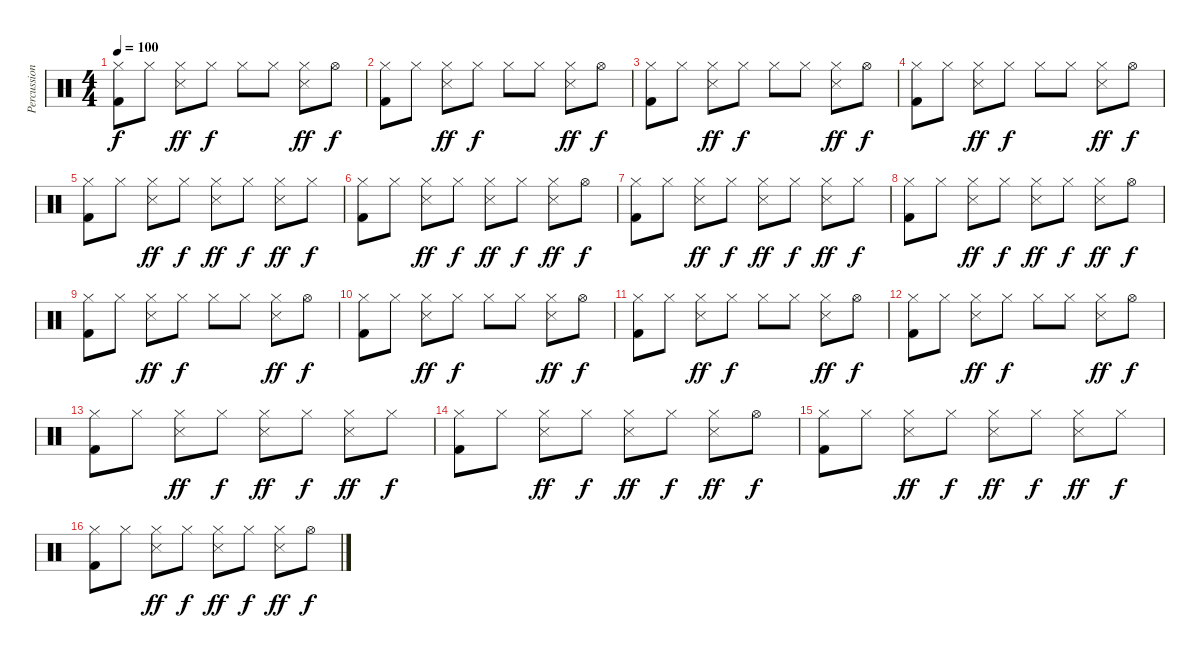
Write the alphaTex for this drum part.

\track ("Percussion" "Percussion") {instrument percussion}
\staff {score}
\articulation defaults
\ts (4 4)
\tempo 100
\clef neutral
\ks c
("Hi-Hat (closed)" "Kick (hit) 2").8{dy f} "Hi-Hat (closed)".8 ("Hi-Hat (closed)" "Snare (side stick) 3").8{dy ff} "Hi-Hat (closed)".8{dy f} "Hi-Hat (closed)".8 "Hi-Hat (closed)".8 ("Hi-Hat (closed)" "Snare (side stick) 3").8{dy ff} "Hi-Hat (open)".8{dy f} |
("Hi-Hat (closed)" "Kick (hit) 2").8 "Hi-Hat (closed)".8 ("Hi-Hat (closed)" "Snare (side stick) 3").8{dy ff} "Hi-Hat (closed)".8{dy f} "Hi-Hat (closed)".8 "Hi-Hat (closed)".8 ("Hi-Hat (closed)" "Snare (side stick) 3").8{dy ff} "Hi-Hat (open)".8{dy f} |
("Hi-Hat (closed)" "Kick (hit) 2").8 "Hi-Hat (closed)".8 ("Hi-Hat (closed)" "Snare (side stick) 3").8{dy ff} "Hi-Hat (closed)".8{dy f} "Hi-Hat (closed)".8 "Hi-Hat (closed)".8 ("Hi-Hat (closed)" "Snare (side stick) 3").8{dy ff} "Hi-Hat (open)".8{dy f} |
("Hi-Hat (closed)" "Kick (hit) 2").8 "Hi-Hat (closed)".8 ("Hi-Hat (closed)" "Snare (side stick) 3").8{dy ff} "Hi-Hat (closed)".8{dy f} "Hi-Hat (closed)".8 "Hi-Hat (closed)".8 ("Hi-Hat (closed)" "Snare (side stick) 3").8{dy ff} "Hi-Hat (open)".8{dy f} |
("Hi-Hat (closed)" "Kick (hit) 2").8 "Hi-Hat (closed)".8 ("Hi-Hat (closed)" "Snare (side stick) 3").8{dy ff} "Hi-Hat (closed)".8{dy f} ("Hi-Hat (closed)" "Snare (side stick) 3").8{dy ff} "Hi-Hat (closed)".8{dy f} ("Hi-Hat (closed)" "Snare (side stick) 3").8{dy ff} "Hi-Hat (closed)".8{dy f} |
("Hi-Hat (closed)" "Kick (hit) 2").8 "Hi-Hat (closed)".8 ("Hi-Hat (closed)" "Snare (side stick) 3").8{dy ff} "Hi-Hat (closed)".8{dy f} ("Hi-Hat (closed)" "Snare (side stick) 3").8{dy ff} "Hi-Hat (closed)".8{dy f} ("Hi-Hat (closed)" "Snare (side stick) 3").8{dy ff} "Hi-Hat (open)".8{dy f} |
("Hi-Hat (closed)" "Kick (hit) 2").8 "Hi-Hat (closed)".8 ("Hi-Hat (closed)" "Snare (side stick) 3").8{dy ff} "Hi-Hat (closed)".8{dy f} ("Hi-Hat (closed)" "Snare (side stick) 3").8{dy ff} "Hi-Hat (closed)".8{dy f} ("Hi-Hat (closed)" "Snare (side stick) 3").8{dy ff} "Hi-Hat (closed)".8{dy f} |
("Hi-Hat (closed)" "Kick (hit) 2").8 "Hi-Hat (closed)".8 ("Hi-Hat (closed)" "Snare (side stick) 3").8{dy ff} "Hi-Hat (closed)".8{dy f} ("Hi-Hat (closed)" "Snare (side stick) 3").8{dy ff} "Hi-Hat (closed)".8{dy f} ("Hi-Hat (closed)" "Snare (side stick) 3").8{dy ff} "Hi-Hat (open)".8{dy f} |
("Hi-Hat (closed)" "Kick (hit) 2").8 "Hi-Hat (closed)".8 ("Hi-Hat (closed)" "Snare (side stick) 3").8{dy ff} "Hi-Hat (closed)".8{dy f} "Hi-Hat (closed)".8 "Hi-Hat (closed)".8 ("Hi-Hat (closed)" "Snare (side stick) 3").8{dy ff} "Hi-Hat (open)".8{dy f} |
("Hi-Hat (closed)" "Kick (hit) 2").8 "Hi-Hat (closed)".8 ("Hi-Hat (closed)" "Snare (side stick) 3").8{dy ff} "Hi-Hat (closed)".8{dy f} "Hi-Hat (closed)".8 "Hi-Hat (closed)".8 ("Hi-Hat (closed)" "Snare (side stick) 3").8{dy ff} "Hi-Hat (open)".8{dy f} |
("Hi-Hat (closed)" "Kick (hit) 2").8 "Hi-Hat (closed)".8 ("Hi-Hat (closed)" "Snare (side stick) 3").8{dy ff} "Hi-Hat (closed)".8{dy f} "Hi-Hat (closed)".8 "Hi-Hat (closed)".8 ("Hi-Hat (closed)" "Snare (side stick) 3").8{dy ff} "Hi-Hat (open)".8{dy f} |
("Hi-Hat (closed)" "Kick (hit) 2").8 "Hi-Hat (closed)".8 ("Hi-Hat (closed)" "Snare (side stick) 3").8{dy ff} "Hi-Hat (closed)".8{dy f} "Hi-Hat (closed)".8 "Hi-Hat (closed)".8 ("Hi-Hat (closed)" "Snare (side stick) 3").8{dy ff} "Hi-Hat (open)".8{dy f} |
("Hi-Hat (closed)" "Kick (hit) 2").8 "Hi-Hat (closed)".8 ("Hi-Hat (closed)" "Snare (side stick) 3").8{dy ff} "Hi-Hat (closed)".8{dy f} ("Hi-Hat (closed)" "Snare (side stick) 3").8{dy ff} "Hi-Hat (closed)".8{dy f} ("Hi-Hat (closed)" "Snare (side stick) 3").8{dy ff} "Hi-Hat (closed)".8{dy f} |
("Hi-Hat (closed)" "Kick (hit) 2").8 "Hi-Hat (closed)".8 ("Hi-Hat (closed)" "Snare (side stick) 3").8{dy ff} "Hi-Hat (closed)".8{dy f} ("Hi-Hat (closed)" "Snare (side stick) 3").8{dy ff} "Hi-Hat (closed)".8{dy f} ("Hi-Hat (closed)" "Snare (side stick) 3").8{dy ff} "Hi-Hat (open)".8{dy f} |
("Hi-Hat (closed)" "Kick (hit) 2").8 "Hi-Hat (closed)".8 ("Hi-Hat (closed)" "Snare (side stick) 3").8{dy ff} "Hi-Hat (closed)".8{dy f} ("Hi-Hat (closed)" "Snare (side stick) 3").8{dy ff} "Hi-Hat (closed)".8{dy f} ("Hi-Hat (closed)" "Snare (side stick) 3").8{dy ff} "Hi-Hat (closed)".8{dy f} |
("Hi-Hat (closed)" "Kick (hit) 2").8 "Hi-Hat (closed)".8 ("Hi-Hat (closed)" "Snare (side stick) 3").8{dy ff} "Hi-Hat (closed)".8{dy f} ("Hi-Hat (closed)" "Snare (side stick) 3").8{dy ff} "Hi-Hat (closed)".8{dy f} ("Hi-Hat (closed)" "Snare (side stick) 3").8{dy ff} "Hi-Hat (open)".8{dy f}
